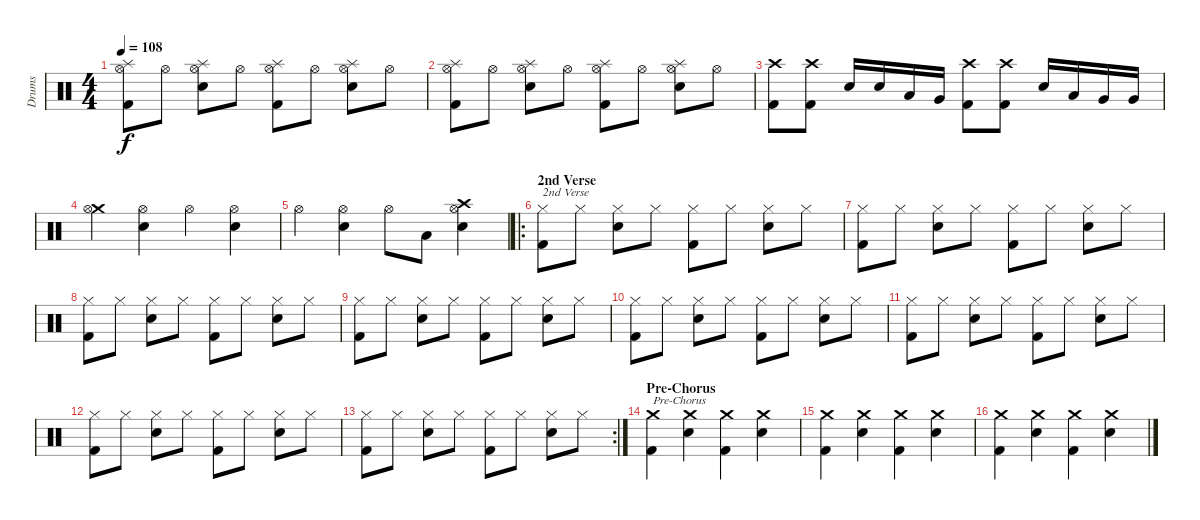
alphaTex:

\track ("Drums" "Drums") {instrument percussion}
\staff {score}
\articulation defaults
\ts (4 4)
\tempo 108
\clef neutral
\ks c
("Splash (hit)" "Hi-Hat (open)" "Kick (hit) 2").8{dy f} "Hi-Hat (open)".8 ("Splash (hit)" "Hi-Hat (open)" "Snare (hit) 2").8 "Hi-Hat (open)".8 ("Splash (hit)" "Hi-Hat (open)" "Kick (hit) 2").8 "Hi-Hat (open)".8 ("Splash (hit)" "Hi-Hat (open)" "Snare (hit) 2").8 "Hi-Hat (open)".8 |
("Splash (hit)" "Hi-Hat (open)" "Kick (hit) 2").8 "Hi-Hat (open)".8 ("Splash (hit)" "Hi-Hat (open)" "Snare (hit) 2").8 "Hi-Hat (open)".8 ("Splash (hit)" "Hi-Hat (open)" "Kick (hit) 2").8 "Hi-Hat (open)".8 ("Splash (hit)" "Hi-Hat (open)" "Snare (hit) 2").8 "Hi-Hat (open)".8 |
("Crash high (hit)" "Kick (hit) 2").8 ("Crash high (hit)" "Kick (hit) 2").8 "Snare (hit) 2".16 "Snare (hit) 2".16 "Low Tom (hit)".16 "Very Low Tom (hit)".16 ("Crash high (hit)" "Kick (hit) 2").8 ("Crash high (hit)" "Kick (hit) 2").8 "Snare (hit) 2".16 "Low Tom (hit)".16 "Very Low Tom (hit)".16 "Very Low Tom (hit)".16 |
("Crash medium (hit)" "Hi-Hat (open)").4 ("Hi-Hat (open)" "Snare (hit) 2").4 "Hi-Hat (open)".4 ("Hi-Hat (open)" "Snare (hit) 2").4 |
"Hi-Hat (open)".4 ("Hi-Hat (open)" "Snare (hit) 2").4 "Hi-Hat (open)".8 "Low Floor Tom (hit)".8 ("Crash high (hit)" "Hi-Hat (open)" "Snare (hit) 2").4 |
\ro
\section ("" "2nd Verse")
("Hi-Hat (closed)" "Kick (hit) 2").8{txt "2nd Verse"} "Hi-Hat (closed)".8 ("Hi-Hat (closed)" "Snare (hit) 2").8 "Hi-Hat (closed)".8 ("Hi-Hat (closed)" "Kick (hit) 2").8 "Hi-Hat (closed)".8 ("Hi-Hat (closed)" "Snare (hit) 2").8 "Hi-Hat (closed)".8 |
("Hi-Hat (closed)" "Kick (hit) 2").8 "Hi-Hat (closed)".8 ("Hi-Hat (closed)" "Snare (hit) 2").8 "Hi-Hat (closed)".8 ("Hi-Hat (closed)" "Kick (hit) 2").8 "Hi-Hat (closed)".8 ("Hi-Hat (closed)" "Snare (hit) 2").8 "Hi-Hat (closed)".8 |
("Hi-Hat (closed)" "Kick (hit) 2").8 "Hi-Hat (closed)".8 ("Hi-Hat (closed)" "Snare (hit) 2").8 "Hi-Hat (closed)".8 ("Hi-Hat (closed)" "Kick (hit) 2").8 "Hi-Hat (closed)".8 ("Hi-Hat (closed)" "Snare (hit) 2").8 "Hi-Hat (closed)".8 |
("Hi-Hat (closed)" "Kick (hit) 2").8 "Hi-Hat (closed)".8 ("Hi-Hat (closed)" "Snare (hit) 2").8 "Hi-Hat (closed)".8 ("Hi-Hat (closed)" "Kick (hit) 2").8 "Hi-Hat (closed)".8 ("Hi-Hat (closed)" "Snare (hit) 2").8 "Hi-Hat (closed)".8 |
("Hi-Hat (closed)" "Kick (hit) 2").8 "Hi-Hat (closed)".8 ("Hi-Hat (closed)" "Snare (hit) 2").8 "Hi-Hat (closed)".8 ("Hi-Hat (closed)" "Kick (hit) 2").8 "Hi-Hat (closed)".8 ("Hi-Hat (closed)" "Snare (hit) 2").8 "Hi-Hat (closed)".8 |
("Hi-Hat (closed)" "Kick (hit) 2").8 "Hi-Hat (closed)".8 ("Hi-Hat (closed)" "Snare (hit) 2").8 "Hi-Hat (closed)".8 ("Hi-Hat (closed)" "Kick (hit) 2").8 "Hi-Hat (closed)".8 ("Hi-Hat (closed)" "Snare (hit) 2").8 "Hi-Hat (closed)".8 |
("Hi-Hat (closed)" "Kick (hit) 2").8 "Hi-Hat (closed)".8 ("Hi-Hat (closed)" "Snare (hit) 2").8 "Hi-Hat (closed)".8 ("Hi-Hat (closed)" "Kick (hit) 2").8 "Hi-Hat (closed)".8 ("Hi-Hat (closed)" "Snare (hit) 2").8 "Hi-Hat (closed)".8 |
\rc 2
("Hi-Hat (closed)" "Kick (hit) 2").8 "Hi-Hat (closed)".8 ("Hi-Hat (closed)" "Snare (hit) 2").8 "Hi-Hat (closed)".8 ("Hi-Hat (closed)" "Kick (hit) 2").8 "Hi-Hat (closed)".8 ("Hi-Hat (closed)" "Snare (hit) 2").8 "Hi-Hat (closed)".8 |
\section ("" "Pre-Chorus")
("Crash medium (hit)" "Kick (hit) 2").4{txt "Pre-Chorus"} ("Crash medium (hit)" "Snare (hit) 2").4 ("Crash medium (hit)" "Kick (hit) 2").4 ("Crash medium (hit)" "Snare (hit) 2").4 |
("Crash medium (hit)" "Kick (hit) 2").4 ("Crash medium (hit)" "Snare (hit) 2").4 ("Crash medium (hit)" "Kick (hit) 2").4 ("Crash medium (hit)" "Snare (hit) 2").4 |
("Crash medium (hit)" "Kick (hit) 2").4 ("Crash medium (hit)" "Snare (hit) 2").4 ("Crash medium (hit)" "Kick (hit) 2").4 ("Crash medium (hit)" "Snare (hit) 2").4
